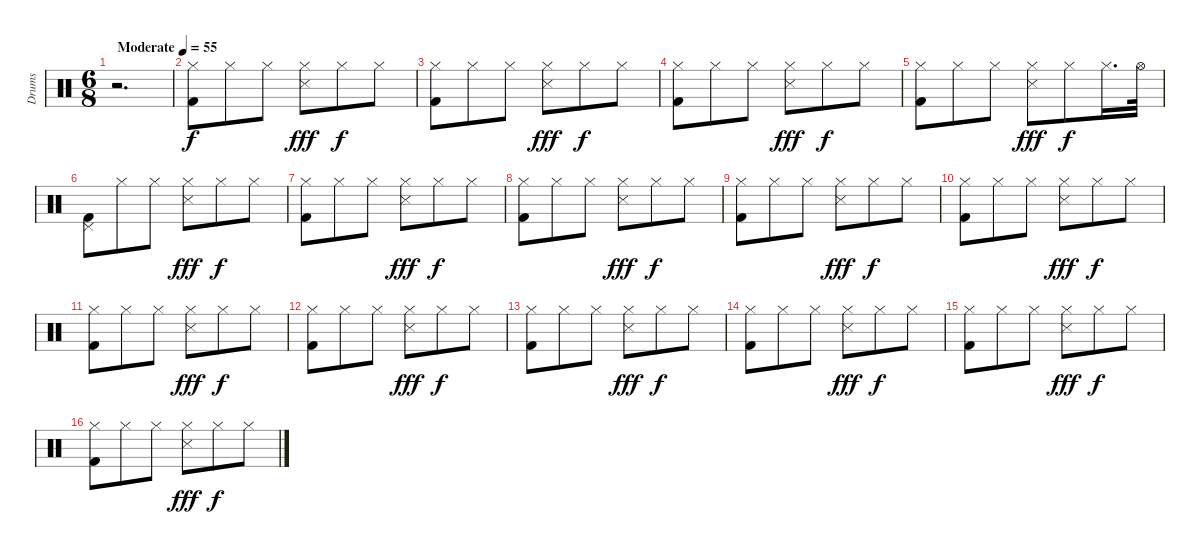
\track ("Drums               " "Drums     ") {instrument percussion}
\staff {score}
\articulation defaults
\ts (6 8)
\tempo (55 "Moderate")
\clef neutral
\ks c
r.2{d dy f} |
("Kick (hit) 2" "Hi-Hat (closed)").8{volume 15} "Hi-Hat (closed)".8 "Hi-Hat (closed)".8 ("Snare (side stick) 3" "Hi-Hat (closed)").8{dy fff} "Hi-Hat (closed)".8{dy f} "Hi-Hat (closed)".8 |
("Kick (hit) 2" "Hi-Hat (closed)").8 "Hi-Hat (closed)".8 "Hi-Hat (closed)".8 ("Hi-Hat (closed)" "Snare (side stick) 3").8{dy fff} "Hi-Hat (closed)".8{dy f} "Hi-Hat (closed)".8 |
("Kick (hit) 2" "Hi-Hat (closed)").8 "Hi-Hat (closed)".8 "Hi-Hat (closed)".8 ("Hi-Hat (closed)" "Snare (side stick) 3").8{dy fff} "Hi-Hat (closed)".8{dy f} "Hi-Hat (closed)".8 |
("Kick (hit) 2" "Hi-Hat (closed)").8 "Hi-Hat (closed)".8 "Hi-Hat (closed)".8 ("Hi-Hat (closed)" "Snare (side stick) 3").8{dy fff} "Hi-Hat (closed)".8{dy f} "Hi-Hat (closed)".16{d} "Hi-Hat (open)".32 |
("Pedal Hi-Hat (hit)" "Kick (hit) 2").8 "Hi-Hat (closed)".8 "Hi-Hat (closed)".8 ("Hi-Hat (closed)" "Snare (side stick) 3").8{dy fff} "Hi-Hat (closed)".8{dy f} "Hi-Hat (closed)".8 |
("Kick (hit) 2" "Hi-Hat (closed)").8 "Hi-Hat (closed)".8 "Hi-Hat (closed)".8 ("Hi-Hat (closed)" "Snare (side stick) 3").8{dy fff} "Hi-Hat (closed)".8{dy f} "Hi-Hat (closed)".8 |
("Kick (hit) 2" "Hi-Hat (closed)").8 "Hi-Hat (closed)".8 "Hi-Hat (closed)".8 ("Hi-Hat (closed)" "Snare (side stick) 3").8{dy fff} "Hi-Hat (closed)".8{dy f} "Hi-Hat (closed)".8 |
("Kick (hit) 2" "Hi-Hat (closed)").8 "Hi-Hat (closed)".8 "Hi-Hat (closed)".8 ("Hi-Hat (closed)" "Snare (side stick) 3").8{dy fff} "Hi-Hat (closed)".8{dy f} "Hi-Hat (closed)".8 |
("Kick (hit) 2" "Hi-Hat (closed)").8 "Hi-Hat (closed)".8 "Hi-Hat (closed)".8 ("Hi-Hat (closed)" "Snare (side stick) 3").8{dy fff} "Hi-Hat (closed)".8{dy f} "Hi-Hat (closed)".8 |
("Kick (hit) 2" "Hi-Hat (closed)").8 "Hi-Hat (closed)".8 "Hi-Hat (closed)".8 ("Hi-Hat (closed)" "Snare (side stick) 3").8{dy fff} "Hi-Hat (closed)".8{dy f} "Hi-Hat (closed)".8 |
("Kick (hit) 2" "Hi-Hat (closed)").8 "Hi-Hat (closed)".8 "Hi-Hat (closed)".8 ("Hi-Hat (closed)" "Snare (side stick) 3").8{dy fff} "Hi-Hat (closed)".8{dy f} "Hi-Hat (closed)".8 |
("Kick (hit) 2" "Hi-Hat (closed)").8 "Hi-Hat (closed)".8 "Hi-Hat (closed)".8 ("Hi-Hat (closed)" "Snare (side stick) 3").8{dy fff} "Hi-Hat (closed)".8{dy f} "Hi-Hat (closed)".8 |
("Kick (hit) 2" "Hi-Hat (closed)").8 "Hi-Hat (closed)".8 "Hi-Hat (closed)".8 ("Hi-Hat (closed)" "Snare (side stick) 3").8{dy fff} "Hi-Hat (closed)".8{dy f} "Hi-Hat (closed)".8 |
("Kick (hit) 2" "Hi-Hat (closed)").8 "Hi-Hat (closed)".8 "Hi-Hat (closed)".8 ("Hi-Hat (closed)" "Snare (side stick) 3").8{dy fff} "Hi-Hat (closed)".8{dy f} "Hi-Hat (closed)".8 |
("Kick (hit) 2" "Hi-Hat (closed)").8 "Hi-Hat (closed)".8 "Hi-Hat (closed)".8 ("Hi-Hat (closed)" "Snare (side stick) 3").8{dy fff} "Hi-Hat (closed)".8{dy f} "Hi-Hat (closed)".8
